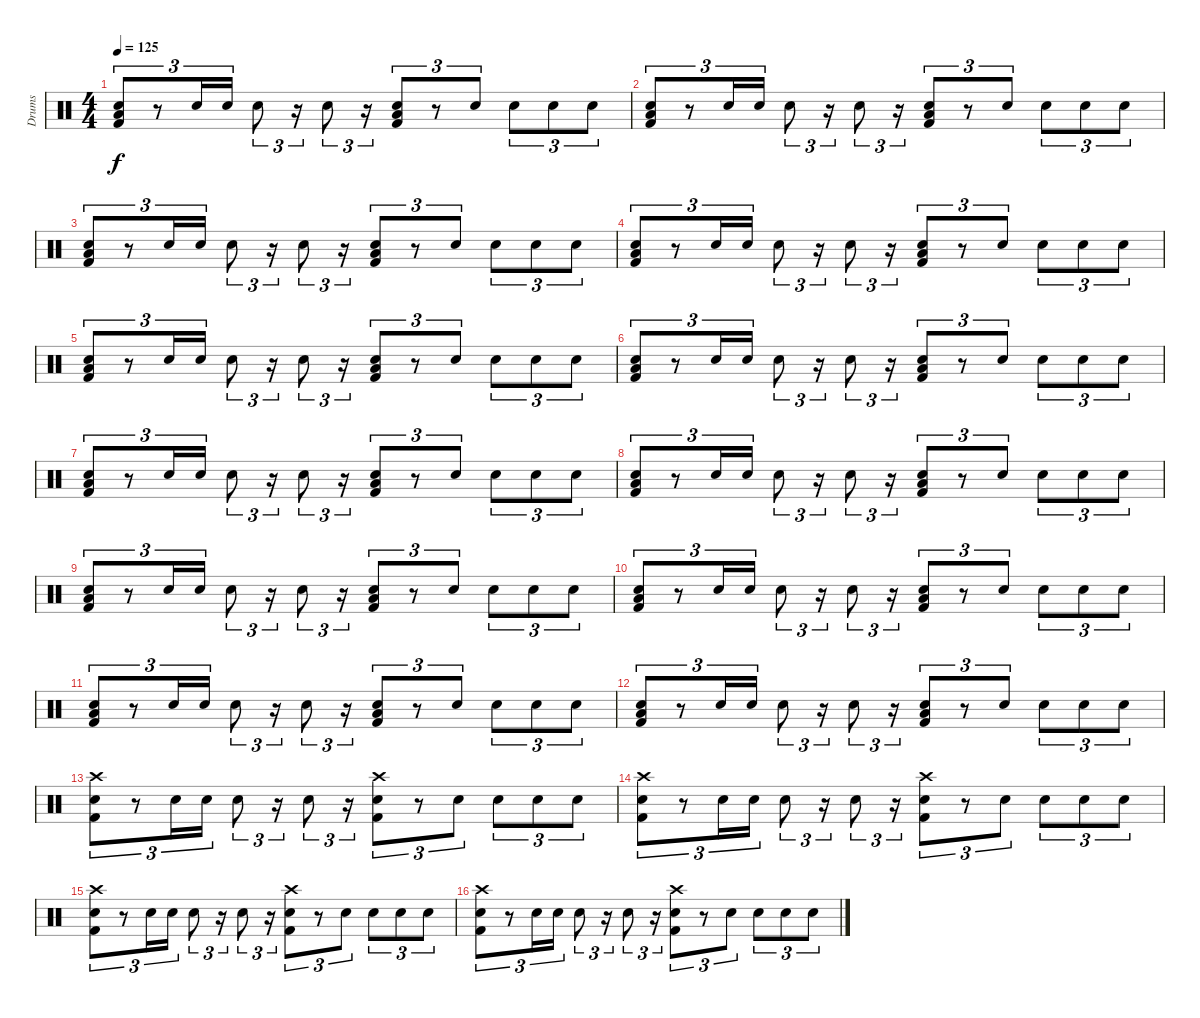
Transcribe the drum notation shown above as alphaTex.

\track ("Drums" "Drums") {instrument percussion}
\staff {score}
\articulation defaults
\ts (4 4)
\tempo 125
\clef neutral
\ks c
("Low Floor Tom (hit)" "Snare (hit) 2" "Kick (hit) 2").8{tu (3 2) dy f} r.8{tu (3 2)} "Snare (hit) 2".16{tu (3 2)} "Snare (hit) 2".16{tu (3 2)} "Snare (hit) 2".8{tu (3 2)} r.16{tu (3 2)} "Snare (hit) 2".8{tu (3 2)} r.16{tu (3 2)} ("Low Floor Tom (hit)" "Snare (hit) 2" "Kick (hit) 2").8{tu (3 2)} r.8{tu (3 2)} "Snare (hit) 2".8{tu (3 2)} "Snare (hit) 2".8{tu (3 2)} "Snare (hit) 2".8{tu (3 2)} "Snare (hit) 2".8{tu (3 2)} |
("Low Floor Tom (hit)" "Snare (hit) 2" "Kick (hit) 2").8{tu (3 2)} r.8{tu (3 2)} "Snare (hit) 2".16{tu (3 2)} "Snare (hit) 2".16{tu (3 2)} "Snare (hit) 2".8{tu (3 2)} r.16{tu (3 2)} "Snare (hit) 2".8{tu (3 2)} r.16{tu (3 2)} ("Low Floor Tom (hit)" "Snare (hit) 2" "Kick (hit) 2").8{tu (3 2)} r.8{tu (3 2)} "Snare (hit) 2".8{tu (3 2)} "Snare (hit) 2".8{tu (3 2)} "Snare (hit) 2".8{tu (3 2)} "Snare (hit) 2".8{tu (3 2)} |
("Low Floor Tom (hit)" "Snare (hit) 2" "Kick (hit) 2").8{tu (3 2)} r.8{tu (3 2)} "Snare (hit) 2".16{tu (3 2)} "Snare (hit) 2".16{tu (3 2)} "Snare (hit) 2".8{tu (3 2)} r.16{tu (3 2)} "Snare (hit) 2".8{tu (3 2)} r.16{tu (3 2)} ("Low Floor Tom (hit)" "Snare (hit) 2" "Kick (hit) 2").8{tu (3 2)} r.8{tu (3 2)} "Snare (hit) 2".8{tu (3 2)} "Snare (hit) 2".8{tu (3 2)} "Snare (hit) 2".8{tu (3 2)} "Snare (hit) 2".8{tu (3 2)} |
("Low Floor Tom (hit)" "Snare (hit) 2" "Kick (hit) 2").8{tu (3 2)} r.8{tu (3 2)} "Snare (hit) 2".16{tu (3 2)} "Snare (hit) 2".16{tu (3 2)} "Snare (hit) 2".8{tu (3 2)} r.16{tu (3 2)} "Snare (hit) 2".8{tu (3 2)} r.16{tu (3 2)} ("Low Floor Tom (hit)" "Snare (hit) 2" "Kick (hit) 2").8{tu (3 2)} r.8{tu (3 2)} "Snare (hit) 2".8{tu (3 2)} "Snare (hit) 2".8{tu (3 2)} "Snare (hit) 2".8{tu (3 2)} "Snare (hit) 2".8{tu (3 2)} |
("Low Floor Tom (hit)" "Snare (hit) 2" "Kick (hit) 2").8{tu (3 2)} r.8{tu (3 2)} "Snare (hit) 2".16{tu (3 2)} "Snare (hit) 2".16{tu (3 2)} "Snare (hit) 2".8{tu (3 2)} r.16{tu (3 2)} "Snare (hit) 2".8{tu (3 2)} r.16{tu (3 2)} ("Low Floor Tom (hit)" "Snare (hit) 2" "Kick (hit) 2").8{tu (3 2)} r.8{tu (3 2)} "Snare (hit) 2".8{tu (3 2)} "Snare (hit) 2".8{tu (3 2)} "Snare (hit) 2".8{tu (3 2)} "Snare (hit) 2".8{tu (3 2)} |
("Low Floor Tom (hit)" "Snare (hit) 2" "Kick (hit) 2").8{tu (3 2)} r.8{tu (3 2)} "Snare (hit) 2".16{tu (3 2)} "Snare (hit) 2".16{tu (3 2)} "Snare (hit) 2".8{tu (3 2)} r.16{tu (3 2)} "Snare (hit) 2".8{tu (3 2)} r.16{tu (3 2)} ("Low Floor Tom (hit)" "Snare (hit) 2" "Kick (hit) 2").8{tu (3 2)} r.8{tu (3 2)} "Snare (hit) 2".8{tu (3 2)} "Snare (hit) 2".8{tu (3 2)} "Snare (hit) 2".8{tu (3 2)} "Snare (hit) 2".8{tu (3 2)} |
("Low Floor Tom (hit)" "Snare (hit) 2" "Kick (hit) 2").8{tu (3 2)} r.8{tu (3 2)} "Snare (hit) 2".16{tu (3 2)} "Snare (hit) 2".16{tu (3 2)} "Snare (hit) 2".8{tu (3 2)} r.16{tu (3 2)} "Snare (hit) 2".8{tu (3 2)} r.16{tu (3 2)} ("Low Floor Tom (hit)" "Snare (hit) 2" "Kick (hit) 2").8{tu (3 2)} r.8{tu (3 2)} "Snare (hit) 2".8{tu (3 2)} "Snare (hit) 2".8{tu (3 2)} "Snare (hit) 2".8{tu (3 2)} "Snare (hit) 2".8{tu (3 2)} |
("Low Floor Tom (hit)" "Snare (hit) 2" "Kick (hit) 2").8{tu (3 2)} r.8{tu (3 2)} "Snare (hit) 2".16{tu (3 2)} "Snare (hit) 2".16{tu (3 2)} "Snare (hit) 2".8{tu (3 2)} r.16{tu (3 2)} "Snare (hit) 2".8{tu (3 2)} r.16{tu (3 2)} ("Low Floor Tom (hit)" "Snare (hit) 2" "Kick (hit) 2").8{tu (3 2)} r.8{tu (3 2)} "Snare (hit) 2".8{tu (3 2)} "Snare (hit) 2".8{tu (3 2)} "Snare (hit) 2".8{tu (3 2)} "Snare (hit) 2".8{tu (3 2)} |
("Low Floor Tom (hit)" "Snare (hit) 2" "Kick (hit) 2").8{tu (3 2)} r.8{tu (3 2)} "Snare (hit) 2".16{tu (3 2)} "Snare (hit) 2".16{tu (3 2)} "Snare (hit) 2".8{tu (3 2)} r.16{tu (3 2)} "Snare (hit) 2".8{tu (3 2)} r.16{tu (3 2)} ("Low Floor Tom (hit)" "Snare (hit) 2" "Kick (hit) 2").8{tu (3 2)} r.8{tu (3 2)} "Snare (hit) 2".8{tu (3 2)} "Snare (hit) 2".8{tu (3 2)} "Snare (hit) 2".8{tu (3 2)} "Snare (hit) 2".8{tu (3 2)} |
("Low Floor Tom (hit)" "Snare (hit) 2" "Kick (hit) 2").8{tu (3 2)} r.8{tu (3 2)} "Snare (hit) 2".16{tu (3 2)} "Snare (hit) 2".16{tu (3 2)} "Snare (hit) 2".8{tu (3 2)} r.16{tu (3 2)} "Snare (hit) 2".8{tu (3 2)} r.16{tu (3 2)} ("Low Floor Tom (hit)" "Snare (hit) 2" "Kick (hit) 2").8{tu (3 2)} r.8{tu (3 2)} "Snare (hit) 2".8{tu (3 2)} "Snare (hit) 2".8{tu (3 2)} "Snare (hit) 2".8{tu (3 2)} "Snare (hit) 2".8{tu (3 2)} |
("Low Floor Tom (hit)" "Snare (hit) 2" "Kick (hit) 2").8{tu (3 2)} r.8{tu (3 2)} "Snare (hit) 2".16{tu (3 2)} "Snare (hit) 2".16{tu (3 2)} "Snare (hit) 2".8{tu (3 2)} r.16{tu (3 2)} "Snare (hit) 2".8{tu (3 2)} r.16{tu (3 2)} ("Low Floor Tom (hit)" "Snare (hit) 2" "Kick (hit) 2").8{tu (3 2)} r.8{tu (3 2)} "Snare (hit) 2".8{tu (3 2)} "Snare (hit) 2".8{tu (3 2)} "Snare (hit) 2".8{tu (3 2)} "Snare (hit) 2".8{tu (3 2)} |
("Low Floor Tom (hit)" "Snare (hit) 2" "Kick (hit) 2").8{tu (3 2)} r.8{tu (3 2)} "Snare (hit) 2".16{tu (3 2)} "Snare (hit) 2".16{tu (3 2)} "Snare (hit) 2".8{tu (3 2)} r.16{tu (3 2)} "Snare (hit) 2".8{tu (3 2)} r.16{tu (3 2)} ("Low Floor Tom (hit)" "Snare (hit) 2" "Kick (hit) 2").8{tu (3 2)} r.8{tu (3 2)} "Snare (hit) 2".8{tu (3 2)} "Snare (hit) 2".8{tu (3 2)} "Snare (hit) 2".8{tu (3 2)} "Snare (hit) 2".8{tu (3 2)} |
("Crash high (hit)" "Snare (hit) 2" "Kick (hit) 2").8{tu (3 2)} r.8{tu (3 2)} "Snare (hit) 2".16{tu (3 2)} "Snare (hit) 2".16{tu (3 2)} "Snare (hit) 2".8{tu (3 2)} r.16{tu (3 2)} "Snare (hit) 2".8{tu (3 2)} r.16{tu (3 2)} ("Crash high (hit)" "Snare (hit) 2" "Kick (hit) 2").8{tu (3 2)} r.8{tu (3 2)} "Snare (hit) 2".8{tu (3 2)} "Snare (hit) 2".8{tu (3 2)} "Snare (hit) 2".8{tu (3 2)} "Snare (hit) 2".8{tu (3 2)} |
("Crash high (hit)" "Snare (hit) 2" "Kick (hit) 2").8{tu (3 2)} r.8{tu (3 2)} "Snare (hit) 2".16{tu (3 2)} "Snare (hit) 2".16{tu (3 2)} "Snare (hit) 2".8{tu (3 2)} r.16{tu (3 2)} "Snare (hit) 2".8{tu (3 2)} r.16{tu (3 2)} ("Crash high (hit)" "Snare (hit) 2" "Kick (hit) 2").8{tu (3 2)} r.8{tu (3 2)} "Snare (hit) 2".8{tu (3 2)} "Snare (hit) 2".8{tu (3 2)} "Snare (hit) 2".8{tu (3 2)} "Snare (hit) 2".8{tu (3 2)} |
("Crash high (hit)" "Snare (hit) 2" "Kick (hit) 2").8{tu (3 2)} r.8{tu (3 2)} "Snare (hit) 2".16{tu (3 2)} "Snare (hit) 2".16{tu (3 2)} "Snare (hit) 2".8{tu (3 2)} r.16{tu (3 2)} "Snare (hit) 2".8{tu (3 2)} r.16{tu (3 2)} ("Crash high (hit)" "Snare (hit) 2" "Kick (hit) 2").8{tu (3 2)} r.8{tu (3 2)} "Snare (hit) 2".8{tu (3 2)} "Snare (hit) 2".8{tu (3 2)} "Snare (hit) 2".8{tu (3 2)} "Snare (hit) 2".8{tu (3 2)} |
("Crash high (hit)" "Snare (hit) 2" "Kick (hit) 2").8{tu (3 2)} r.8{tu (3 2)} "Snare (hit) 2".16{tu (3 2)} "Snare (hit) 2".16{tu (3 2)} "Snare (hit) 2".8{tu (3 2)} r.16{tu (3 2)} "Snare (hit) 2".8{tu (3 2)} r.16{tu (3 2)} ("Crash high (hit)" "Snare (hit) 2" "Kick (hit) 2").8{tu (3 2)} r.8{tu (3 2)} "Snare (hit) 2".8{tu (3 2)} "Snare (hit) 2".8{tu (3 2)} "Snare (hit) 2".8{tu (3 2)} "Snare (hit) 2".8{tu (3 2)}
